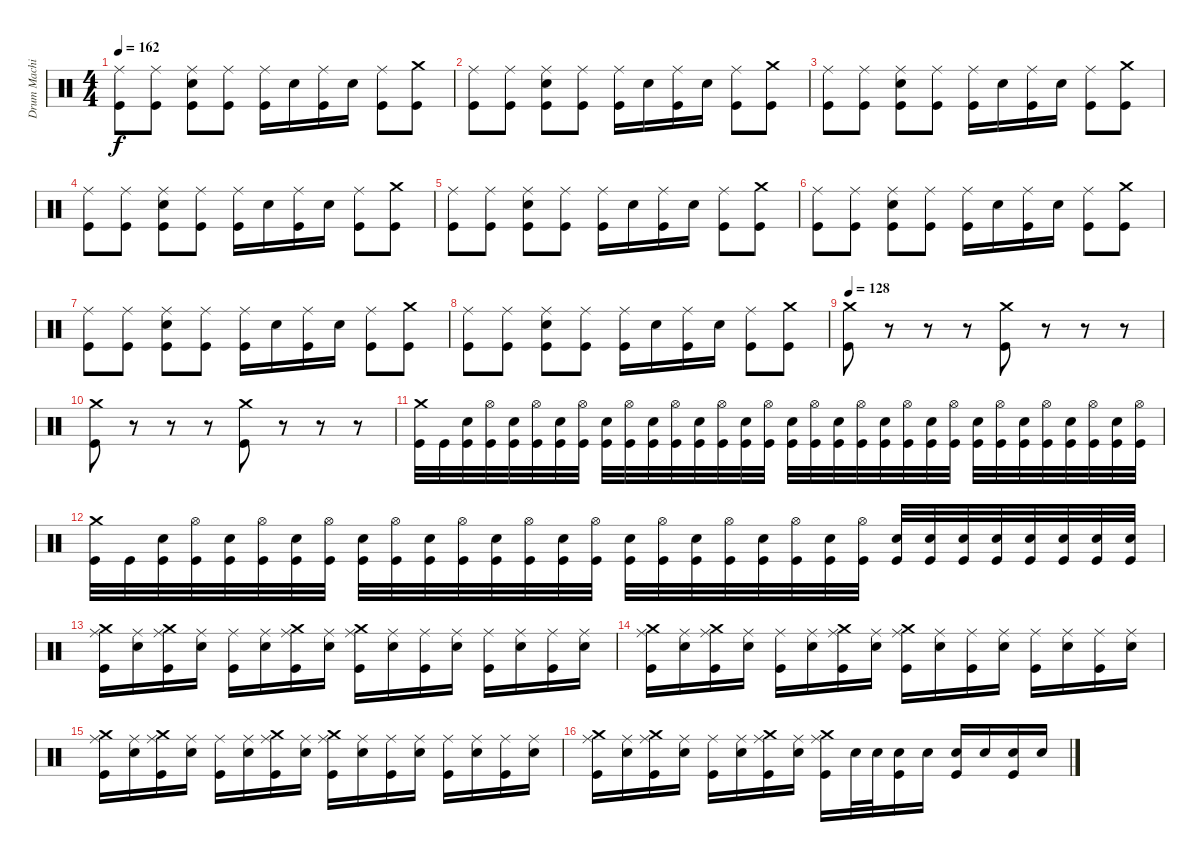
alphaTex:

\track ("Drum Machine" "Drum Machi") {instrument percussion}
\staff {score}
\articulation defaults
\ts (4 4)
\tempo 162
\clef neutral
\ks c
("Ride (middle)" "Kick (hit)").8{dy f} ("Ride (middle)" "Kick (hit)").8 ("Ride (middle)" "Electric Snare (hit)" "Kick (hit)").8 ("Ride (middle)" "Kick (hit)").8 ("Ride (middle)" "Kick (hit)").16 "Electric Snare (hit)".16 ("Ride (middle)" "Kick (hit)").16 "Electric Snare (hit)".16 ("Ride (middle)" "Kick (hit)").8 ("Crash medium (hit)" "Kick (hit)").8 |
("Ride (middle)" "Kick (hit)").8 ("Ride (middle)" "Kick (hit)").8 ("Ride (middle)" "Electric Snare (hit)" "Kick (hit)").8 ("Ride (middle)" "Kick (hit)").8 ("Ride (middle)" "Kick (hit)").16 "Electric Snare (hit)".16 ("Ride (middle)" "Kick (hit)").16 "Electric Snare (hit)".16 ("Ride (middle)" "Kick (hit)").8 ("Crash medium (hit)" "Kick (hit)").8 |
("Ride (middle)" "Kick (hit)").8 ("Ride (middle)" "Kick (hit)").8 ("Ride (middle)" "Electric Snare (hit)" "Kick (hit)").8 ("Ride (middle)" "Kick (hit)").8 ("Ride (middle)" "Kick (hit)").16 "Electric Snare (hit)".16 ("Ride (middle)" "Kick (hit)").16 "Electric Snare (hit)".16 ("Ride (middle)" "Kick (hit)").8 ("Crash medium (hit)" "Kick (hit)").8 |
("Ride (middle)" "Kick (hit)").8 ("Ride (middle)" "Kick (hit)").8 ("Ride (middle)" "Electric Snare (hit)" "Kick (hit)").8 ("Ride (middle)" "Kick (hit)").8 ("Ride (middle)" "Kick (hit)").16 "Electric Snare (hit)".16 ("Ride (middle)" "Kick (hit)").16 "Electric Snare (hit)".16 ("Ride (middle)" "Kick (hit)").8 ("Crash medium (hit)" "Kick (hit)").8 |
("Ride (middle)" "Kick (hit)").8 ("Ride (middle)" "Kick (hit)").8 ("Ride (middle)" "Electric Snare (hit)" "Kick (hit)").8 ("Ride (middle)" "Kick (hit)").8 ("Ride (middle)" "Kick (hit)").16 "Electric Snare (hit)".16 ("Ride (middle)" "Kick (hit)").16 "Electric Snare (hit)".16 ("Ride (middle)" "Kick (hit)").8 ("Crash medium (hit)" "Kick (hit)").8 |
("Ride (middle)" "Kick (hit)").8 ("Ride (middle)" "Kick (hit)").8 ("Ride (middle)" "Electric Snare (hit)" "Kick (hit)").8 ("Ride (middle)" "Kick (hit)").8 ("Ride (middle)" "Kick (hit)").16 "Electric Snare (hit)".16 ("Ride (middle)" "Kick (hit)").16 "Electric Snare (hit)".16 ("Ride (middle)" "Kick (hit)").8 ("Crash medium (hit)" "Kick (hit)").8 |
("Ride (middle)" "Kick (hit)").8 ("Ride (middle)" "Kick (hit)").8 ("Ride (middle)" "Electric Snare (hit)" "Kick (hit)").8 ("Ride (middle)" "Kick (hit)").8 ("Ride (middle)" "Kick (hit)").16 "Electric Snare (hit)".16 ("Ride (middle)" "Kick (hit)").16 "Electric Snare (hit)".16 ("Ride (middle)" "Kick (hit)").8 ("Crash medium (hit)" "Kick (hit)").8 |
("Ride (middle)" "Kick (hit)").8 ("Ride (middle)" "Kick (hit)").8 ("Ride (middle)" "Electric Snare (hit)" "Kick (hit)").8 ("Ride (middle)" "Kick (hit)").8 ("Ride (middle)" "Kick (hit)").16 "Electric Snare (hit)".16 ("Ride (middle)" "Kick (hit)").16 "Electric Snare (hit)".16 ("Ride (middle)" "Kick (hit)").8 ("Crash medium (hit)" "Kick (hit)").8 |
\tempo 128
("Crash medium (hit)" "Kick (hit)").8 r.8 r.8 r.8 ("Crash medium (hit)" "Kick (hit)").8 r.8 r.8 r.8 |
("Crash medium (hit)" "Kick (hit)").8 r.8 r.8 r.8 ("Crash medium (hit)" "Kick (hit)").8 r.8 r.8 r.8 |
("Crash medium (hit)" "Kick (hit)").32 "Kick (hit)".32 ("Electric Snare (hit)" "Kick (hit)").32 ("Hi-Hat (open)" "Kick (hit)").32 ("Electric Snare (hit)" "Kick (hit)").32 ("Hi-Hat (open)" "Kick (hit)").32 ("Electric Snare (hit)" "Kick (hit)").32 ("Hi-Hat (open)" "Kick (hit)").32 ("Electric Snare (hit)" "Kick (hit)").32 ("Hi-Hat (open)" "Kick (hit)").32 ("Electric Snare (hit)" "Kick (hit)").32 ("Hi-Hat (open)" "Kick (hit)").32 ("Electric Snare (hit)" "Kick (hit)").32 ("Hi-Hat (open)" "Kick (hit)").32 ("Electric Snare (hit)" "Kick (hit)").32 ("Hi-Hat (open)" "Kick (hit)").32 ("Electric Snare (hit)" "Kick (hit)").32 ("Hi-Hat (open)" "Kick (hit)").32 ("Electric Snare (hit)" "Kick (hit)").32 ("Hi-Hat (open)" "Kick (hit)").32 ("Electric Snare (hit)" "Kick (hit)").32 ("Hi-Hat (open)" "Kick (hit)").32 ("Electric Snare (hit)" "Kick (hit)").32 ("Hi-Hat (open)" "Kick (hit)").32 ("Electric Snare (hit)" "Kick (hit)").32 ("Hi-Hat (open)" "Kick (hit)").32 ("Electric Snare (hit)" "Kick (hit)").32 ("Hi-Hat (open)" "Kick (hit)").32 ("Electric Snare (hit)" "Kick (hit)").32 ("Hi-Hat (open)" "Kick (hit)").32 ("Electric Snare (hit)" "Kick (hit)").32 ("Hi-Hat (open)" "Kick (hit)").32 |
("Crash medium (hit)" "Kick (hit)").32 "Kick (hit)".32 ("Electric Snare (hit)" "Kick (hit)").32 ("Hi-Hat (open)" "Kick (hit)").32 ("Electric Snare (hit)" "Kick (hit)").32 ("Hi-Hat (open)" "Kick (hit)").32 ("Electric Snare (hit)" "Kick (hit)").32 ("Hi-Hat (open)" "Kick (hit)").32 ("Electric Snare (hit)" "Kick (hit)").32 ("Hi-Hat (open)" "Kick (hit)").32 ("Electric Snare (hit)" "Kick (hit)").32 ("Hi-Hat (open)" "Kick (hit)").32 ("Electric Snare (hit)" "Kick (hit)").32 ("Hi-Hat (open)" "Kick (hit)").32 ("Electric Snare (hit)" "Kick (hit)").32 ("Hi-Hat (open)" "Kick (hit)").32 ("Electric Snare (hit)" "Kick (hit)").32 ("Hi-Hat (open)" "Kick (hit)").32 ("Electric Snare (hit)" "Kick (hit)").32 ("Hi-Hat (open)" "Kick (hit)").32 ("Electric Snare (hit)" "Kick (hit)").32 ("Hi-Hat (open)" "Kick (hit)").32 ("Electric Snare (hit)" "Kick (hit)").32 ("Hi-Hat (open)" "Kick (hit)").32 ("Electric Snare (hit)" "Kick (hit)").32 ("Electric Snare (hit)" "Kick (hit)").32 ("Electric Snare (hit)" "Kick (hit)").32 ("Electric Snare (hit)" "Kick (hit)").32 ("Electric Snare (hit)" "Kick (hit)").32 ("Electric Snare (hit)" "Kick (hit)").32 ("Electric Snare (hit)" "Kick (hit)").32 ("Electric Snare (hit)" "Kick (hit)").32 |
("Ride (middle)" "Crash medium (hit)" "Kick (hit)").16 ("Ride (middle)" "Electric Snare (hit)").16 ("Ride (middle)" "Crash medium (hit)" "Kick (hit)").16 ("Ride (middle)" "Electric Snare (hit)").16 ("Ride (middle)" "Kick (hit)").16 ("Ride (middle)" "Electric Snare (hit)").16 ("Ride (middle)" "Crash medium (hit)" "Kick (hit)").16 ("Ride (middle)" "Electric Snare (hit)").16 ("Ride (middle)" "Crash medium (hit)" "Kick (hit)").16 ("Ride (middle)" "Electric Snare (hit)").16 ("Ride (middle)" "Kick (hit)").16 ("Ride (middle)" "Electric Snare (hit)").16 ("Ride (middle)" "Kick (hit)").16 ("Ride (middle)" "Electric Snare (hit)").16 ("Ride (middle)" "Kick (hit)").16 ("Ride (middle)" "Electric Snare (hit)").16 |
("Ride (middle)" "Crash medium (hit)" "Kick (hit)").16 ("Ride (middle)" "Electric Snare (hit)").16 ("Ride (middle)" "Crash medium (hit)" "Kick (hit)").16 ("Ride (middle)" "Electric Snare (hit)").16 ("Ride (middle)" "Kick (hit)").16 ("Ride (middle)" "Electric Snare (hit)").16 ("Ride (middle)" "Crash medium (hit)" "Kick (hit)").16 ("Ride (middle)" "Electric Snare (hit)").16 ("Ride (middle)" "Crash medium (hit)" "Kick (hit)").16 ("Ride (middle)" "Electric Snare (hit)").16 ("Ride (middle)" "Kick (hit)").16 ("Ride (middle)" "Electric Snare (hit)").16 ("Ride (middle)" "Kick (hit)").16 ("Ride (middle)" "Electric Snare (hit)").16 ("Ride (middle)" "Kick (hit)").16 ("Ride (middle)" "Electric Snare (hit)").16 |
("Ride (middle)" "Crash medium (hit)" "Kick (hit)").16 ("Ride (middle)" "Electric Snare (hit)").16 ("Ride (middle)" "Crash medium (hit)" "Kick (hit)").16 ("Ride (middle)" "Electric Snare (hit)").16 ("Ride (middle)" "Kick (hit)").16 ("Ride (middle)" "Electric Snare (hit)").16 ("Ride (middle)" "Crash medium (hit)" "Kick (hit)").16 ("Ride (middle)" "Electric Snare (hit)").16 ("Ride (middle)" "Crash medium (hit)" "Kick (hit)").16 ("Ride (middle)" "Electric Snare (hit)").16 ("Ride (middle)" "Kick (hit)").16 ("Ride (middle)" "Electric Snare (hit)").16 ("Ride (middle)" "Kick (hit)").16 ("Ride (middle)" "Electric Snare (hit)").16 ("Ride (middle)" "Kick (hit)").16 ("Ride (middle)" "Electric Snare (hit)").16 |
("Ride (middle)" "Crash medium (hit)" "Kick (hit)").16 ("Ride (middle)" "Electric Snare (hit)").16 ("Ride (middle)" "Crash medium (hit)" "Kick (hit)").16 ("Ride (middle)" "Electric Snare (hit)").16 ("Ride (middle)" "Kick (hit)").16 ("Ride (middle)" "Electric Snare (hit)").16 ("Ride (middle)" "Crash medium (hit)" "Kick (hit)").16 ("Ride (middle)" "Electric Snare (hit)").16 ("Ride (middle)" "Crash medium (hit)" "Kick (hit)").16 "Electric Snare (hit)".32 "Electric Snare (hit)".32 ("Electric Snare (hit)" "Kick (hit)").16 "Electric Snare (hit)".16 ("Electric Snare (hit)" "Kick (hit)").16 "Electric Snare (hit)".16 ("Electric Snare (hit)" "Kick (hit)").16 "Electric Snare (hit)".16
